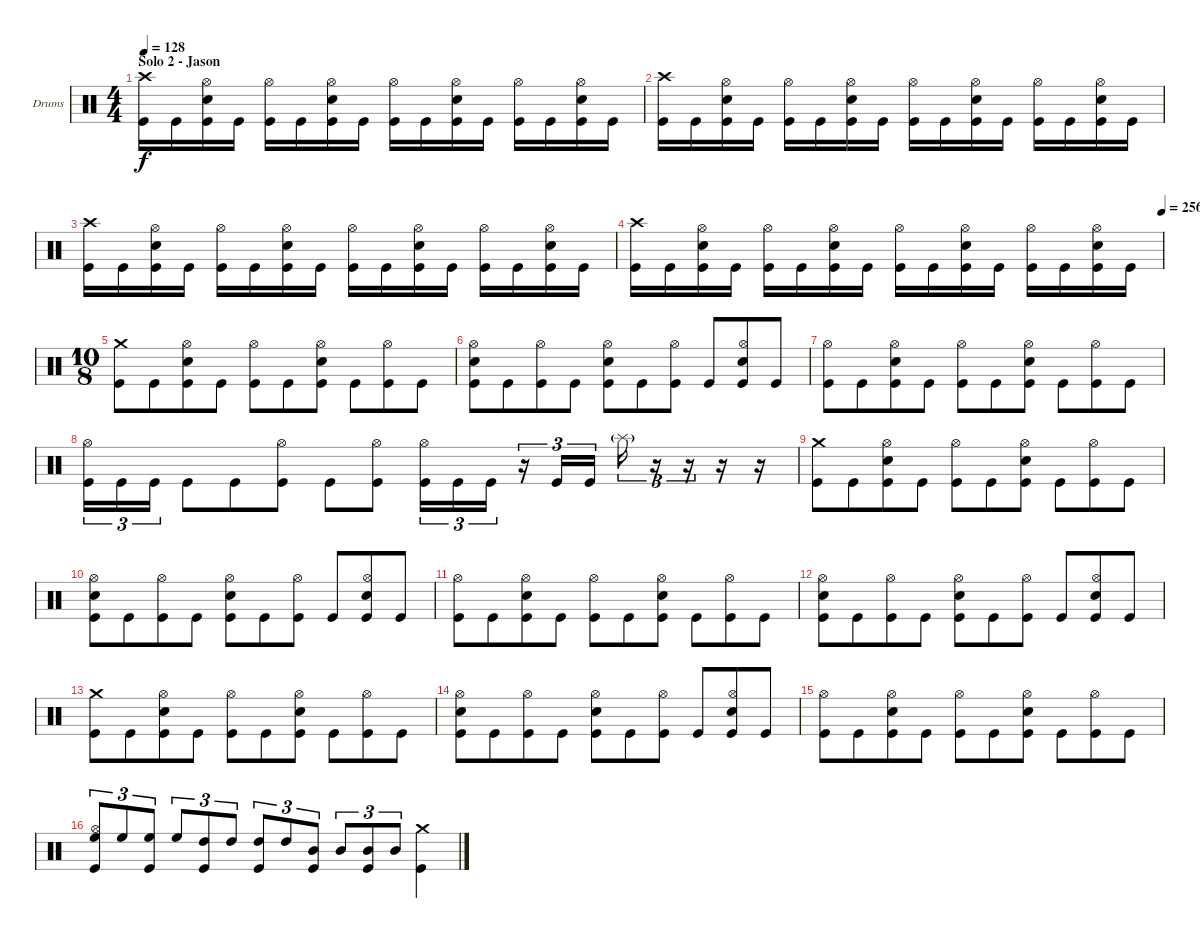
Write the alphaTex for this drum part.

\bracketExtendMode groupsimilarinstruments
\firstSystemTrackNameOrientation horizontal
\otherSystemsTrackNameOrientation horizontal
\track ("Drumkit" "Drums") {instrument percussion}
\staff {score}
\articulation defaults
\ts (4 4)
\section ("" "Solo 2 - Jason")
\tempo 128
\clef neutral
\ks c
("Crash high (hit)" "Kick (hit)").16{dy f} "Kick (hit)".16 ("Hi-Hat (open)" "Snare (hit) 2" "Kick (hit)").16 "Kick (hit)".16 ("Hi-Hat (open)" "Kick (hit)").16 "Kick (hit)".16 ("Hi-Hat (open)" "Snare (hit) 2" "Kick (hit)").16 "Kick (hit)".16 ("Hi-Hat (open)" "Kick (hit)").16 "Kick (hit)".16 ("Hi-Hat (open)" "Snare (hit) 2" "Kick (hit)").16 "Kick (hit)".16 ("Hi-Hat (open)" "Kick (hit)").16 "Kick (hit)".16 ("Hi-Hat (open)" "Snare (hit) 2" "Kick (hit)").16 "Kick (hit)".16 |
("Crash high (hit)" "Kick (hit)").16 "Kick (hit)".16 ("Hi-Hat (open)" "Snare (hit) 2" "Kick (hit)").16 "Kick (hit)".16 ("Hi-Hat (open)" "Kick (hit)").16 "Kick (hit)".16 ("Hi-Hat (open)" "Snare (hit) 2" "Kick (hit)").16 "Kick (hit)".16 ("Hi-Hat (open)" "Kick (hit)").16 "Kick (hit)".16 ("Hi-Hat (open)" "Snare (hit) 2" "Kick (hit)").16 "Kick (hit)".16 ("Hi-Hat (open)" "Kick (hit)").16 "Kick (hit)".16 ("Hi-Hat (open)" "Snare (hit) 2" "Kick (hit)").16 "Kick (hit)".16 |
("Crash high (hit)" "Kick (hit)").16 "Kick (hit)".16 ("Hi-Hat (open)" "Snare (hit) 2" "Kick (hit)").16 "Kick (hit)".16 ("Hi-Hat (open)" "Kick (hit)").16 "Kick (hit)".16 ("Hi-Hat (open)" "Snare (hit) 2" "Kick (hit)").16 "Kick (hit)".16 ("Hi-Hat (open)" "Kick (hit)").16 "Kick (hit)".16 ("Hi-Hat (open)" "Snare (hit) 2" "Kick (hit)").16 "Kick (hit)".16 ("Hi-Hat (open)" "Kick (hit)").16 "Kick (hit)".16 ("Hi-Hat (open)" "Snare (hit) 2" "Kick (hit)").16 "Kick (hit)".16 |
\tempo (256 1)
("Crash high (hit)" "Kick (hit)").16 "Kick (hit)".16 ("Hi-Hat (open)" "Snare (hit) 2" "Kick (hit)").16 "Kick (hit)".16 ("Hi-Hat (open)" "Kick (hit)").16 "Kick (hit)".16 ("Hi-Hat (open)" "Snare (hit) 2" "Kick (hit)").16 "Kick (hit)".16 ("Hi-Hat (open)" "Kick (hit)").16 "Kick (hit)".16 ("Hi-Hat (open)" "Snare (hit) 2" "Kick (hit)").16 "Kick (hit)".16 ("Hi-Hat (open)" "Kick (hit)").16 "Kick (hit)".16 ("Hi-Hat (open)" "Snare (hit) 2" "Kick (hit)").16 "Kick (hit)".16 |
\ts (10 8)
("Crash medium (hit)" "Kick (hit)").8 "Kick (hit)".8 ("Hi-Hat (open)" "Snare (hit) 2" "Kick (hit)").8 "Kick (hit)".8 ("Hi-Hat (open)" "Kick (hit)").8 "Kick (hit)".8 ("Hi-Hat (open)" "Snare (hit) 2" "Kick (hit)").8 "Kick (hit)".8 ("Hi-Hat (open)" "Kick (hit)").8 "Kick (hit)".8 |
("Hi-Hat (open)" "Snare (hit) 2" "Kick (hit)").8 "Kick (hit)".8 ("Hi-Hat (open)" "Kick (hit)").8 "Kick (hit)".8 ("Hi-Hat (open)" "Snare (hit) 2" "Kick (hit)").8 "Kick (hit)".8 ("Hi-Hat (open)" "Kick (hit)").8 "Kick (hit)".8 ("Hi-Hat (open)" "Snare (hit) 2" "Kick (hit)").8 "Kick (hit)".8 |
("Hi-Hat (open)" "Kick (hit)").8 "Kick (hit)".8 ("Hi-Hat (open)" "Snare (hit) 2" "Kick (hit)").8 "Kick (hit)".8 ("Hi-Hat (open)" "Kick (hit)").8 "Kick (hit)".8 ("Hi-Hat (open)" "Snare (hit) 2" "Kick (hit)").8 "Kick (hit)".8 ("Hi-Hat (open)" "Kick (hit)").8 "Kick (hit)".8 |
("Hi-Hat (open)" "Kick (hit)").16{tu (3 2)} "Kick (hit)".16{tu (3 2)} "Kick (hit)".16{tu (3 2)} "Kick (hit)".8 "Kick (hit)".8 ("Hi-Hat (open)" "Kick (hit)").8 "Kick (hit)".8 ("Hi-Hat (open)" "Kick (hit)").8 ("Hi-Hat (open)" "Kick (hit)").16{tu (3 2)} "Kick (hit)".16{tu (3 2)} "Kick (hit)".16{tu (3 2)} r.16{tu (3 2)} "Kick (hit)".16{tu (3 2)} "Kick (hit)".16{tu (3 2)} "Splash (hit)"{g}.16{tu (3 2)} r.16{tu (3 2)} r.16{tu (3 2)} r.16 r.16 |
("Crash medium (hit)" "Kick (hit)").8 "Kick (hit)".8 ("Hi-Hat (open)" "Snare (hit) 2" "Kick (hit)").8 "Kick (hit)".8 ("Hi-Hat (open)" "Kick (hit)").8 "Kick (hit)".8 ("Hi-Hat (open)" "Snare (hit) 2" "Kick (hit)").8 "Kick (hit)".8 ("Hi-Hat (open)" "Kick (hit)").8 "Kick (hit)".8 |
("Hi-Hat (open)" "Snare (hit) 2" "Kick (hit)").8 "Kick (hit)".8 ("Hi-Hat (open)" "Kick (hit)").8 "Kick (hit)".8 ("Hi-Hat (open)" "Snare (hit) 2" "Kick (hit)").8 "Kick (hit)".8 ("Hi-Hat (open)" "Kick (hit)").8 "Kick (hit)".8 ("Hi-Hat (open)" "Snare (hit) 2" "Kick (hit)").8 "Kick (hit)".8 |
("Hi-Hat (open)" "Kick (hit)").8 "Kick (hit)".8 ("Hi-Hat (open)" "Snare (hit) 2" "Kick (hit)").8 "Kick (hit)".8 ("Hi-Hat (open)" "Kick (hit)").8 "Kick (hit)".8 ("Hi-Hat (open)" "Snare (hit) 2" "Kick (hit)").8 "Kick (hit)".8 ("Hi-Hat (open)" "Kick (hit)").8 "Kick (hit)".8 |
("Hi-Hat (open)" "Snare (hit) 2" "Kick (hit)").8 "Kick (hit)".8 ("Hi-Hat (open)" "Kick (hit)").8 "Kick (hit)".8 ("Hi-Hat (open)" "Snare (hit) 2" "Kick (hit)").8 "Kick (hit)".8 ("Hi-Hat (open)" "Kick (hit)").8 "Kick (hit)".8 ("Hi-Hat (open)" "Snare (hit) 2" "Kick (hit)").8 "Kick (hit)".8 |
("Crash medium (hit)" "Kick (hit)").8 "Kick (hit)".8 ("Hi-Hat (open)" "Snare (hit) 2" "Kick (hit)").8 "Kick (hit)".8 ("Hi-Hat (open)" "Kick (hit)").8 "Kick (hit)".8 ("Hi-Hat (open)" "Snare (hit) 2" "Kick (hit)").8 "Kick (hit)".8 ("Hi-Hat (open)" "Kick (hit)").8 "Kick (hit)".8 |
("Hi-Hat (open)" "Snare (hit) 2" "Kick (hit)").8 "Kick (hit)".8 ("Hi-Hat (open)" "Kick (hit)").8 "Kick (hit)".8 ("Hi-Hat (open)" "Snare (hit) 2" "Kick (hit)").8 "Kick (hit)".8 ("Hi-Hat (open)" "Kick (hit)").8 "Kick (hit)".8 ("Hi-Hat (open)" "Snare (hit) 2" "Kick (hit)").8 "Kick (hit)".8 |
("Hi-Hat (open)" "Kick (hit)").8 "Kick (hit)".8 ("Hi-Hat (open)" "Snare (hit) 2" "Kick (hit)").8 "Kick (hit)".8 ("Hi-Hat (open)" "Kick (hit)").8 "Kick (hit)".8 ("Hi-Hat (open)" "Snare (hit) 2" "Kick (hit)").8 "Kick (hit)".8 ("Hi-Hat (open)" "Kick (hit)").8 "Kick (hit)".8 |
("Hi-Hat (open)" "High Floor Tom (hit)" "Kick (hit)").8{tu (3 2)} "High Floor Tom (hit)".8{tu (3 2)} ("High Floor Tom (hit)" "Kick (hit)").8{tu (3 2)} "High Floor Tom (hit)".8{tu (3 2)} ("High Tom (hit)" "Kick (hit)").8{tu (3 2)} "High Tom (hit)".8{tu (3 2)} ("High Tom (hit)" "Kick (hit)").8{tu (3 2)} "High Tom (hit)".8{tu (3 2)} ("Mid Tom (hit)" "Kick (hit)").8{tu (3 2)} "Mid Tom (hit)".8{tu (3 2)} ("Mid Tom (hit)" "Kick (hit)").8{tu (3 2)} "Mid Tom (hit)".8{tu (3 2)} ("Crash medium (hit)" "Kick (hit)").4
